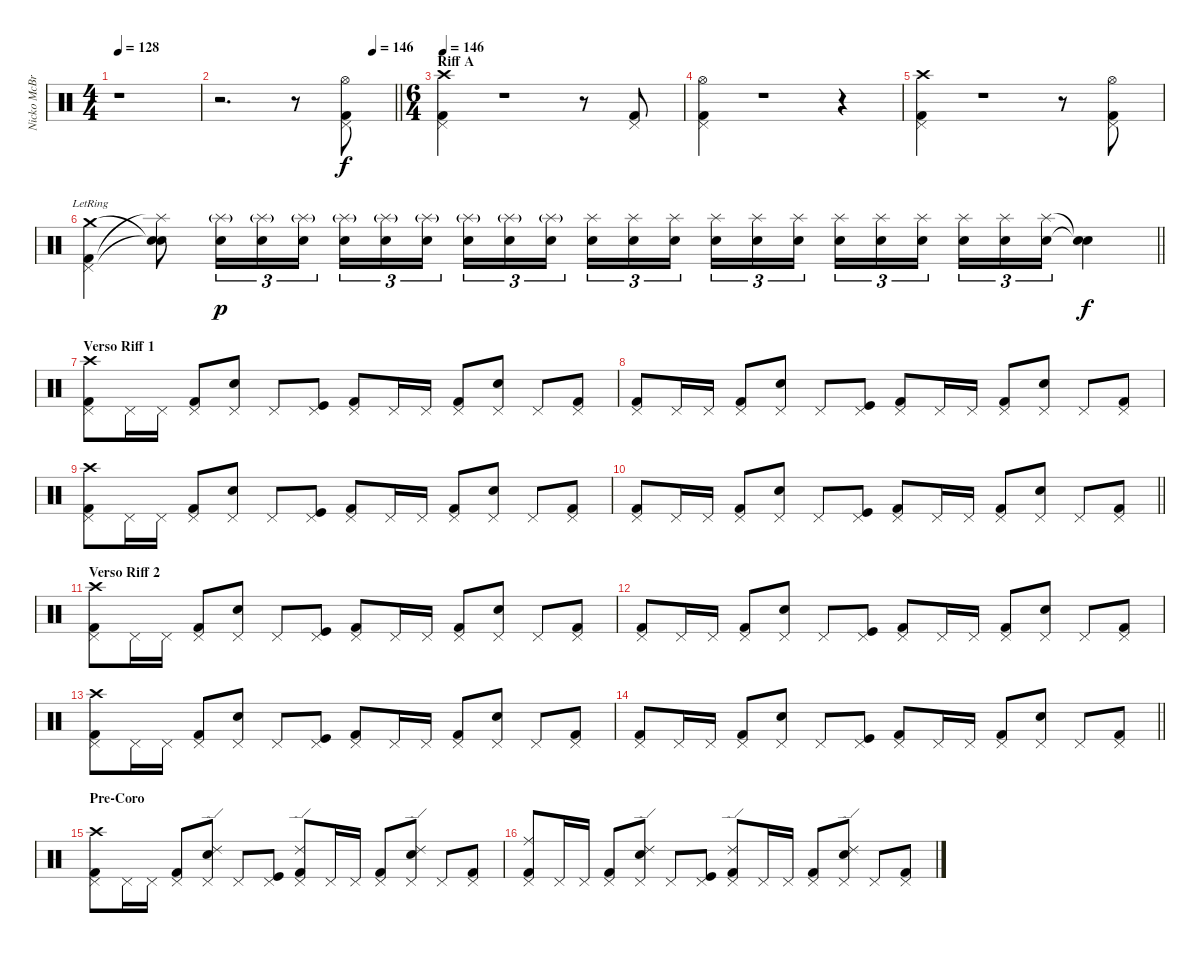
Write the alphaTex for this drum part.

\track ("Nicko McBrain" "Nicko McBr") {instrument percussion}
\staff {score}
\articulation defaults
\ts (4 4)
\tempo 128
\clef neutral
\ks c
r.1{dy f} |
\tempo (146 0.875)
\barLineRight lightlight
r.2{d} r.8 ("Kick (hit) 2" "Pedal Hi-Hat (hit)" "Hi-Hat (open)").8 |
\ts (6 4)
\section ("" "Riff A")
\tempo 146
("Kick (hit) 2" "Pedal Hi-Hat (hit)" "Crash high (hit)").4 r.1 r.8 ("Kick (hit) 2" "Pedal Hi-Hat (hit)").8 |
("Kick (hit) 2" "Pedal Hi-Hat (hit)" "Hi-Hat (open)").4 r.1 r.4 |
("Kick (hit) 2" "Pedal Hi-Hat (hit)" "Crash high (hit)").4 r.1 r.8 ("Kick (hit) 2" "Pedal Hi-Hat (hit)" "Hi-Hat (open)").8 |
\barLineRight lightlight
("Kick (hit) 2" "Pedal Hi-Hat (hit)" "Crash medium (hit)"{lr}).4 ("Splash (hit)"{t} "Snare (hit)"{t} "Snare (hit)"{t}).8 ("Splash (hit)"{g} "Snare (hit) 2").16{tu (3 2) dy p} ("Splash (hit)"{g} "Snare (hit) 2").16{tu (3 2)} ("Splash (hit)"{g} "Snare (hit) 2").16{tu (3 2) beam splitsecondary} ("Splash (hit)"{g} "Snare (hit) 2").16{tu (3 2)} ("Splash (hit)"{g} "Snare (hit) 2").16{tu (3 2)} ("Splash (hit)"{g} "Snare (hit) 2").16{tu (3 2) beam splitsecondary} ("Splash (hit)"{g} "Snare (hit) 2").16{tu (3 2)} ("Splash (hit)"{g} "Snare (hit) 2").16{tu (3 2)} ("Splash (hit)"{g} "Snare (hit) 2").16{tu (3 2)} ("Splash (hit)" "Snare (hit) 2").16{tu (3 2)} ("Splash (hit)" "Snare (hit) 2").16{tu (3 2)} ("Splash (hit)" "Snare (hit) 2").16{tu (3 2) beam splitsecondary} ("Splash (hit)" "Snare (hit) 2").16{tu (3 2)} ("Splash (hit)" "Snare (hit) 2").16{tu (3 2)} ("Splash (hit)" "Snare (hit) 2").16{tu (3 2) beam splitsecondary} ("Splash (hit)" "Snare (hit) 2").16{tu (3 2)} ("Splash (hit)" "Snare (hit) 2").16{tu (3 2)} ("Splash (hit)" "Snare (hit) 2").16{tu (3 2) beam splitsecondary} ("Splash (hit)" "Snare (hit) 2").16{tu (3 2)} ("Splash (hit)" "Snare (hit) 2").16{tu (3 2)} ("Splash (hit)" "Snare (hit) 2").16{tu (3 2)} ("Snare (hit)"{t} "Snare (hit) 2"{t}).4{dy f} |
\section ("" "Verso Riff 1")
("Kick (hit) 2" "Pedal Hi-Hat (hit)" "Crash high (hit)").8 "Pedal Hi-Hat (hit)".16 "Pedal Hi-Hat (hit)".16 ("Kick (hit) 2" "Pedal Hi-Hat (hit)").8 ("Snare (hit) 2" "Pedal Hi-Hat (hit)").8 "Pedal Hi-Hat (hit)".8 ("Kick (hit)" "Pedal Hi-Hat (hit)").8 ("Kick (hit) 2" "Pedal Hi-Hat (hit)").8 "Pedal Hi-Hat (hit)".16 "Pedal Hi-Hat (hit)".16 ("Kick (hit) 2" "Pedal Hi-Hat (hit)").8 ("Snare (hit) 2" "Pedal Hi-Hat (hit)").8 "Pedal Hi-Hat (hit)".8 ("Kick (hit) 2" "Pedal Hi-Hat (hit)").8 |
("Kick (hit) 2" "Pedal Hi-Hat (hit)").8 "Pedal Hi-Hat (hit)".16 "Pedal Hi-Hat (hit)".16 ("Kick (hit) 2" "Pedal Hi-Hat (hit)").8 ("Snare (hit) 2" "Pedal Hi-Hat (hit)").8 "Pedal Hi-Hat (hit)".8 ("Kick (hit)" "Pedal Hi-Hat (hit)").8 ("Kick (hit) 2" "Pedal Hi-Hat (hit)").8 "Pedal Hi-Hat (hit)".16 "Pedal Hi-Hat (hit)".16 ("Kick (hit) 2" "Pedal Hi-Hat (hit)").8 ("Snare (hit) 2" "Pedal Hi-Hat (hit)").8 "Pedal Hi-Hat (hit)".8 ("Kick (hit) 2" "Pedal Hi-Hat (hit)").8 |
("Kick (hit) 2" "Pedal Hi-Hat (hit)" "Crash high (hit)").8 "Pedal Hi-Hat (hit)".16 "Pedal Hi-Hat (hit)".16 ("Kick (hit) 2" "Pedal Hi-Hat (hit)").8 ("Snare (hit) 2" "Pedal Hi-Hat (hit)").8 "Pedal Hi-Hat (hit)".8 ("Kick (hit)" "Pedal Hi-Hat (hit)").8 ("Kick (hit) 2" "Pedal Hi-Hat (hit)").8 "Pedal Hi-Hat (hit)".16 "Pedal Hi-Hat (hit)".16 ("Kick (hit) 2" "Pedal Hi-Hat (hit)").8 ("Snare (hit) 2" "Pedal Hi-Hat (hit)").8 "Pedal Hi-Hat (hit)".8 ("Kick (hit) 2" "Pedal Hi-Hat (hit)").8 |
\barLineRight lightlight
("Kick (hit) 2" "Pedal Hi-Hat (hit)").8 "Pedal Hi-Hat (hit)".16 "Pedal Hi-Hat (hit)".16 ("Kick (hit) 2" "Pedal Hi-Hat (hit)").8 ("Snare (hit) 2" "Pedal Hi-Hat (hit)").8 "Pedal Hi-Hat (hit)".8 ("Kick (hit)" "Pedal Hi-Hat (hit)").8 ("Kick (hit) 2" "Pedal Hi-Hat (hit)").8 "Pedal Hi-Hat (hit)".16 "Pedal Hi-Hat (hit)".16 ("Kick (hit) 2" "Pedal Hi-Hat (hit)").8 ("Snare (hit) 2" "Pedal Hi-Hat (hit)").8 "Pedal Hi-Hat (hit)".8 ("Kick (hit) 2" "Pedal Hi-Hat (hit)").8 |
\section ("" "Verso Riff 2")
("Kick (hit) 2" "Pedal Hi-Hat (hit)" "Crash high (hit)").8 "Pedal Hi-Hat (hit)".16 "Pedal Hi-Hat (hit)".16 ("Kick (hit) 2" "Pedal Hi-Hat (hit)").8 ("Snare (hit) 2" "Pedal Hi-Hat (hit)").8 "Pedal Hi-Hat (hit)".8 ("Kick (hit)" "Pedal Hi-Hat (hit)").8 ("Kick (hit) 2" "Pedal Hi-Hat (hit)").8 "Pedal Hi-Hat (hit)".16 "Pedal Hi-Hat (hit)".16 ("Kick (hit) 2" "Pedal Hi-Hat (hit)").8 ("Snare (hit) 2" "Pedal Hi-Hat (hit)").8 "Pedal Hi-Hat (hit)".8 ("Kick (hit) 2" "Pedal Hi-Hat (hit)").8 |
("Kick (hit) 2" "Pedal Hi-Hat (hit)").8 "Pedal Hi-Hat (hit)".16 "Pedal Hi-Hat (hit)".16 ("Kick (hit) 2" "Pedal Hi-Hat (hit)").8 ("Snare (hit) 2" "Pedal Hi-Hat (hit)").8 "Pedal Hi-Hat (hit)".8 ("Kick (hit)" "Pedal Hi-Hat (hit)").8 ("Kick (hit) 2" "Pedal Hi-Hat (hit)").8 "Pedal Hi-Hat (hit)".16 "Pedal Hi-Hat (hit)".16 ("Kick (hit) 2" "Pedal Hi-Hat (hit)").8 ("Snare (hit) 2" "Pedal Hi-Hat (hit)").8 "Pedal Hi-Hat (hit)".8 ("Kick (hit) 2" "Pedal Hi-Hat (hit)").8 |
("Kick (hit) 2" "Pedal Hi-Hat (hit)" "Crash high (hit)").8 "Pedal Hi-Hat (hit)".16 "Pedal Hi-Hat (hit)".16 ("Kick (hit) 2" "Pedal Hi-Hat (hit)").8 ("Snare (hit) 2" "Pedal Hi-Hat (hit)").8 "Pedal Hi-Hat (hit)".8 ("Kick (hit)" "Pedal Hi-Hat (hit)").8 ("Kick (hit) 2" "Pedal Hi-Hat (hit)").8 "Pedal Hi-Hat (hit)".16 "Pedal Hi-Hat (hit)".16 ("Kick (hit) 2" "Pedal Hi-Hat (hit)").8 ("Snare (hit) 2" "Pedal Hi-Hat (hit)").8 "Pedal Hi-Hat (hit)".8 ("Kick (hit) 2" "Pedal Hi-Hat (hit)").8 |
\barLineRight lightlight
("Kick (hit) 2" "Pedal Hi-Hat (hit)").8 "Pedal Hi-Hat (hit)".16 "Pedal Hi-Hat (hit)".16 ("Kick (hit) 2" "Pedal Hi-Hat (hit)").8 ("Snare (hit) 2" "Pedal Hi-Hat (hit)").8 "Pedal Hi-Hat (hit)".8 ("Kick (hit)" "Pedal Hi-Hat (hit)").8 ("Kick (hit) 2" "Pedal Hi-Hat (hit)").8 "Pedal Hi-Hat (hit)".16 "Pedal Hi-Hat (hit)".16 ("Kick (hit) 2" "Pedal Hi-Hat (hit)").8 ("Snare (hit) 2" "Pedal Hi-Hat (hit)").8 "Pedal Hi-Hat (hit)".8 ("Kick (hit) 2" "Pedal Hi-Hat (hit)").8 |
\section ("" "Pre-Coro")
("Kick (hit) 2" "Pedal Hi-Hat (hit)" "Crash high (hit)").8 "Pedal Hi-Hat (hit)".16 "Pedal Hi-Hat (hit)".16 ("Kick (hit) 2" "Pedal Hi-Hat (hit)").8 ("Snare (hit) 2" "Pedal Hi-Hat (hit)" "Ride (edge) 2").8 "Pedal Hi-Hat (hit)".8 ("Kick (hit)" "Pedal Hi-Hat (hit)").8 ("Kick (hit) 2" "Pedal Hi-Hat (hit)" "Ride (edge) 2").8 "Pedal Hi-Hat (hit)".16 "Pedal Hi-Hat (hit)".16 ("Kick (hit) 2" "Pedal Hi-Hat (hit)").8 ("Snare (hit) 2" "Pedal Hi-Hat (hit)" "Ride (edge) 2").8 "Pedal Hi-Hat (hit)".8 ("Kick (hit) 2" "Pedal Hi-Hat (hit)").8 |
("Kick (hit) 2" "Pedal Hi-Hat (hit)" "Ride (middle)").8 "Pedal Hi-Hat (hit)".16 "Pedal Hi-Hat (hit)".16 ("Kick (hit) 2" "Pedal Hi-Hat (hit)").8 ("Snare (hit) 2" "Pedal Hi-Hat (hit)" "Ride (edge) 2").8 "Pedal Hi-Hat (hit)".8 ("Kick (hit)" "Pedal Hi-Hat (hit)").8 ("Kick (hit) 2" "Pedal Hi-Hat (hit)" "Ride (edge) 2").8 "Pedal Hi-Hat (hit)".16 "Pedal Hi-Hat (hit)".16 ("Kick (hit) 2" "Pedal Hi-Hat (hit)").8 ("Snare (hit) 2" "Pedal Hi-Hat (hit)" "Ride (edge) 2").8 "Pedal Hi-Hat (hit)".8 ("Kick (hit) 2" "Pedal Hi-Hat (hit)").8
